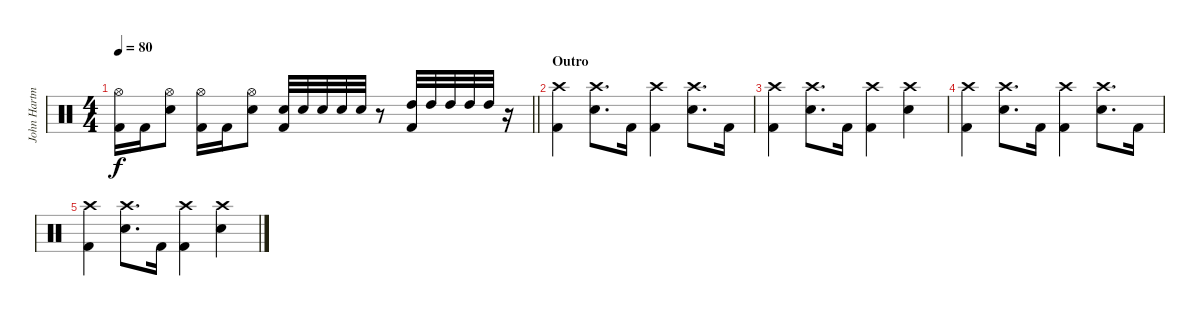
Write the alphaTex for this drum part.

\track ("John Hartman" "John Hartm") {instrument percussion}
\staff {score}
\articulation defaults
\ts (4 4)
\tempo 80
\clef neutral
\barLineRight lightlight
\ks c
("Hi-Hat (open)" "Kick (hit) 2").16{dy f} "Kick (hit) 2".16 ("Hi-Hat (open)" "Electric Snare (hit)").8 ("Hi-Hat (open)" "Kick (hit) 2").16 "Kick (hit) 2".16 ("Hi-Hat (open)" "Electric Snare (hit)").8 ("Electric Snare (hit)" "Kick (hit) 2").32 "Electric Snare (hit)".32 "Electric Snare (hit)".32 "Electric Snare (hit)".32 "Electric Snare (hit)".32 r.8 ("Kick (hit) 2" "High Tom (hit)").32 "High Tom (hit)".32 "High Tom (hit)".32 "High Tom (hit)".32 "High Tom (hit)".32 r.16 |
\section ("" "Outro")
("Crash high (hit)" "Kick (hit) 2").4 ("Crash high (hit)" "Electric Snare (hit)").8{d} "Kick (hit) 2".16 ("Crash high (hit)" "Kick (hit) 2").4 ("Crash high (hit)" "Electric Snare (hit)").8{d} "Kick (hit) 2".16 |
("Crash high (hit)" "Kick (hit) 2").4 ("Crash high (hit)" "Electric Snare (hit)").8{d} "Kick (hit) 2".16 ("Crash high (hit)" "Kick (hit) 2").4 ("Crash high (hit)" "Electric Snare (hit)").4 |
("Crash high (hit)" "Kick (hit) 2").4 ("Crash high (hit)" "Electric Snare (hit)").8{d} "Kick (hit) 2".16 ("Crash high (hit)" "Kick (hit) 2").4 ("Crash high (hit)" "Electric Snare (hit)").8{d} "Kick (hit) 2".16 |
("Crash high (hit)" "Kick (hit) 2").4 ("Crash high (hit)" "Electric Snare (hit)").8{d} "Kick (hit) 2".16 ("Crash high (hit)" "Kick (hit) 2").4 ("Crash high (hit)" "Electric Snare (hit)").4
